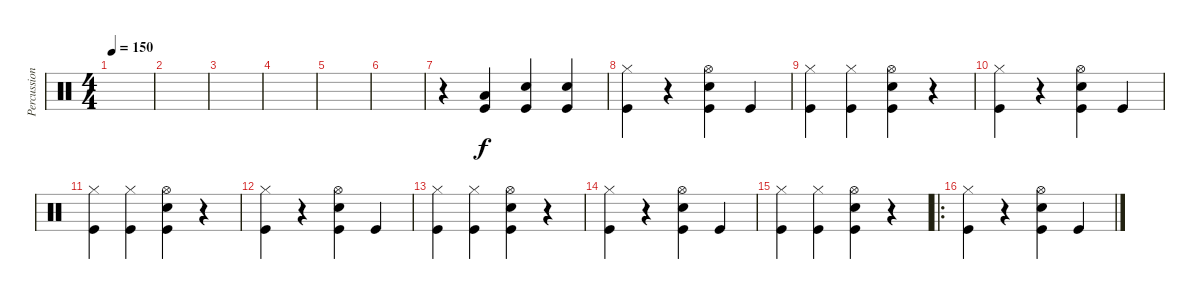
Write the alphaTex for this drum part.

\track ("Percussion" "Percussion") {instrument percussion}
\staff {score}
\articulation defaults
\ts (4 4)
\tempo 150
\clef neutral
\ks c
|
|
|
|
|
|
r.4 ("Kick (hit)" "Low Tom (hit)").4 ("Kick (hit)" "Snare (hit) 2").4 ("Kick (hit)" "Electric Snare (hit)").4 |
("Hi-Hat (closed)" "Kick (hit)").4 r.4 ("Hi-Hat (open)" "Kick (hit)" "Electric Snare (hit)").4 "Kick (hit)".4 |
("Hi-Hat (closed)" "Kick (hit)").4 ("Hi-Hat (closed)" "Kick (hit)").4 ("Hi-Hat (open)" "Kick (hit)" "Electric Snare (hit)").4 r.4 |
("Hi-Hat (closed)" "Kick (hit)").4 r.4 ("Hi-Hat (open)" "Kick (hit)" "Electric Snare (hit)").4 "Kick (hit)".4 |
("Hi-Hat (closed)" "Kick (hit)").4 ("Hi-Hat (closed)" "Kick (hit)").4 ("Hi-Hat (open)" "Kick (hit)" "Electric Snare (hit)").4 r.4 |
("Hi-Hat (closed)" "Kick (hit)").4 r.4 ("Hi-Hat (open)" "Kick (hit)" "Electric Snare (hit)").4 "Kick (hit)".4 |
("Hi-Hat (closed)" "Kick (hit)").4 ("Hi-Hat (closed)" "Kick (hit)").4 ("Hi-Hat (open)" "Kick (hit)" "Electric Snare (hit)").4 r.4 |
("Hi-Hat (closed)" "Kick (hit)").4 r.4 ("Hi-Hat (open)" "Kick (hit)" "Electric Snare (hit)").4 "Kick (hit)".4 |
("Hi-Hat (closed)" "Kick (hit)").4 ("Hi-Hat (closed)" "Kick (hit)").4 ("Hi-Hat (open)" "Kick (hit)" "Electric Snare (hit)").4 r.4 |
\ro
("Hi-Hat (closed)" "Kick (hit)").4 r.4 ("Hi-Hat (open)" "Kick (hit)" "Electric Snare (hit)").4 "Kick (hit)".4
